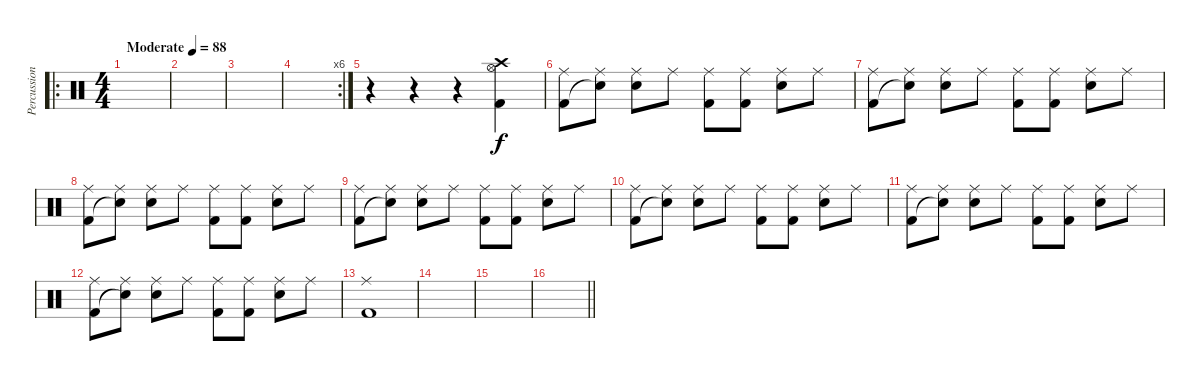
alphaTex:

\track ("Percussion" "Percussion") {instrument percussion}
\staff {score}
\articulation defaults
\ro
\ts (4 4)
\tempo (88 "Moderate")
\clef neutral
\ks c
|
|
|
\rc 6
|
r.4 r.4 r.4 ("Hi-Hat (open)" "Crash high (hit)" "Kick (hit) 2").4 |
("Ride (middle)" "Kick (hit) 2").8 ("Ride (middle)" "Snare (hit)"{t}).8 ("Ride (middle)" "Electric Snare (hit)").8 "Ride (middle)".8 ("Ride (middle)" "Kick (hit) 2").8 ("Ride (middle)" "Kick (hit) 2").8 ("Ride (middle)" "Electric Snare (hit)").8 "Ride (middle)".8 |
("Ride (middle)" "Kick (hit) 2").8 ("Ride (middle)" "Snare (hit)"{t}).8 ("Ride (middle)" "Electric Snare (hit)").8 "Ride (middle)".8 ("Ride (middle)" "Kick (hit) 2").8 ("Ride (middle)" "Kick (hit) 2").8 ("Ride (middle)" "Electric Snare (hit)").8 "Ride (middle)".8 |
("Ride (middle)" "Kick (hit) 2").8 ("Ride (middle)" "Snare (hit)"{t}).8 ("Ride (middle)" "Electric Snare (hit)").8 "Ride (middle)".8 ("Ride (middle)" "Kick (hit) 2").8 ("Ride (middle)" "Kick (hit) 2").8 ("Ride (middle)" "Electric Snare (hit)").8 "Ride (middle)".8 |
("Ride (middle)" "Kick (hit) 2").8 ("Ride (middle)" "Snare (hit)"{t}).8 ("Ride (middle)" "Electric Snare (hit)").8 "Ride (middle)".8 ("Ride (middle)" "Kick (hit) 2").8 ("Ride (middle)" "Kick (hit) 2").8 ("Ride (middle)" "Electric Snare (hit)").8 "Ride (middle)".8 |
("Ride (middle)" "Kick (hit) 2").8 ("Ride (middle)" "Snare (hit)"{t}).8 ("Ride (middle)" "Electric Snare (hit)").8 "Ride (middle)".8 ("Ride (middle)" "Kick (hit) 2").8 ("Ride (middle)" "Kick (hit) 2").8 ("Ride (middle)" "Electric Snare (hit)").8 "Ride (middle)".8 |
("Ride (middle)" "Kick (hit) 2").8 ("Ride (middle)" "Snare (hit)"{t}).8 ("Ride (middle)" "Electric Snare (hit)").8 "Ride (middle)".8 ("Ride (middle)" "Kick (hit) 2").8 ("Ride (middle)" "Kick (hit) 2").8 ("Ride (middle)" "Electric Snare (hit)").8 "Ride (middle)".8 |
("Ride (middle)" "Kick (hit) 2").8 ("Ride (middle)" "Snare (hit)"{t}).8 ("Ride (middle)" "Electric Snare (hit)").8 "Ride (middle)".8 ("Ride (middle)" "Kick (hit) 2").8 ("Ride (middle)" "Kick (hit) 2").8 ("Ride (middle)" "Electric Snare (hit)").8 "Ride (middle)".8 |
("Ride (middle)" "Kick (hit) 2").1 |
|
|
\barLineRight lightlight
